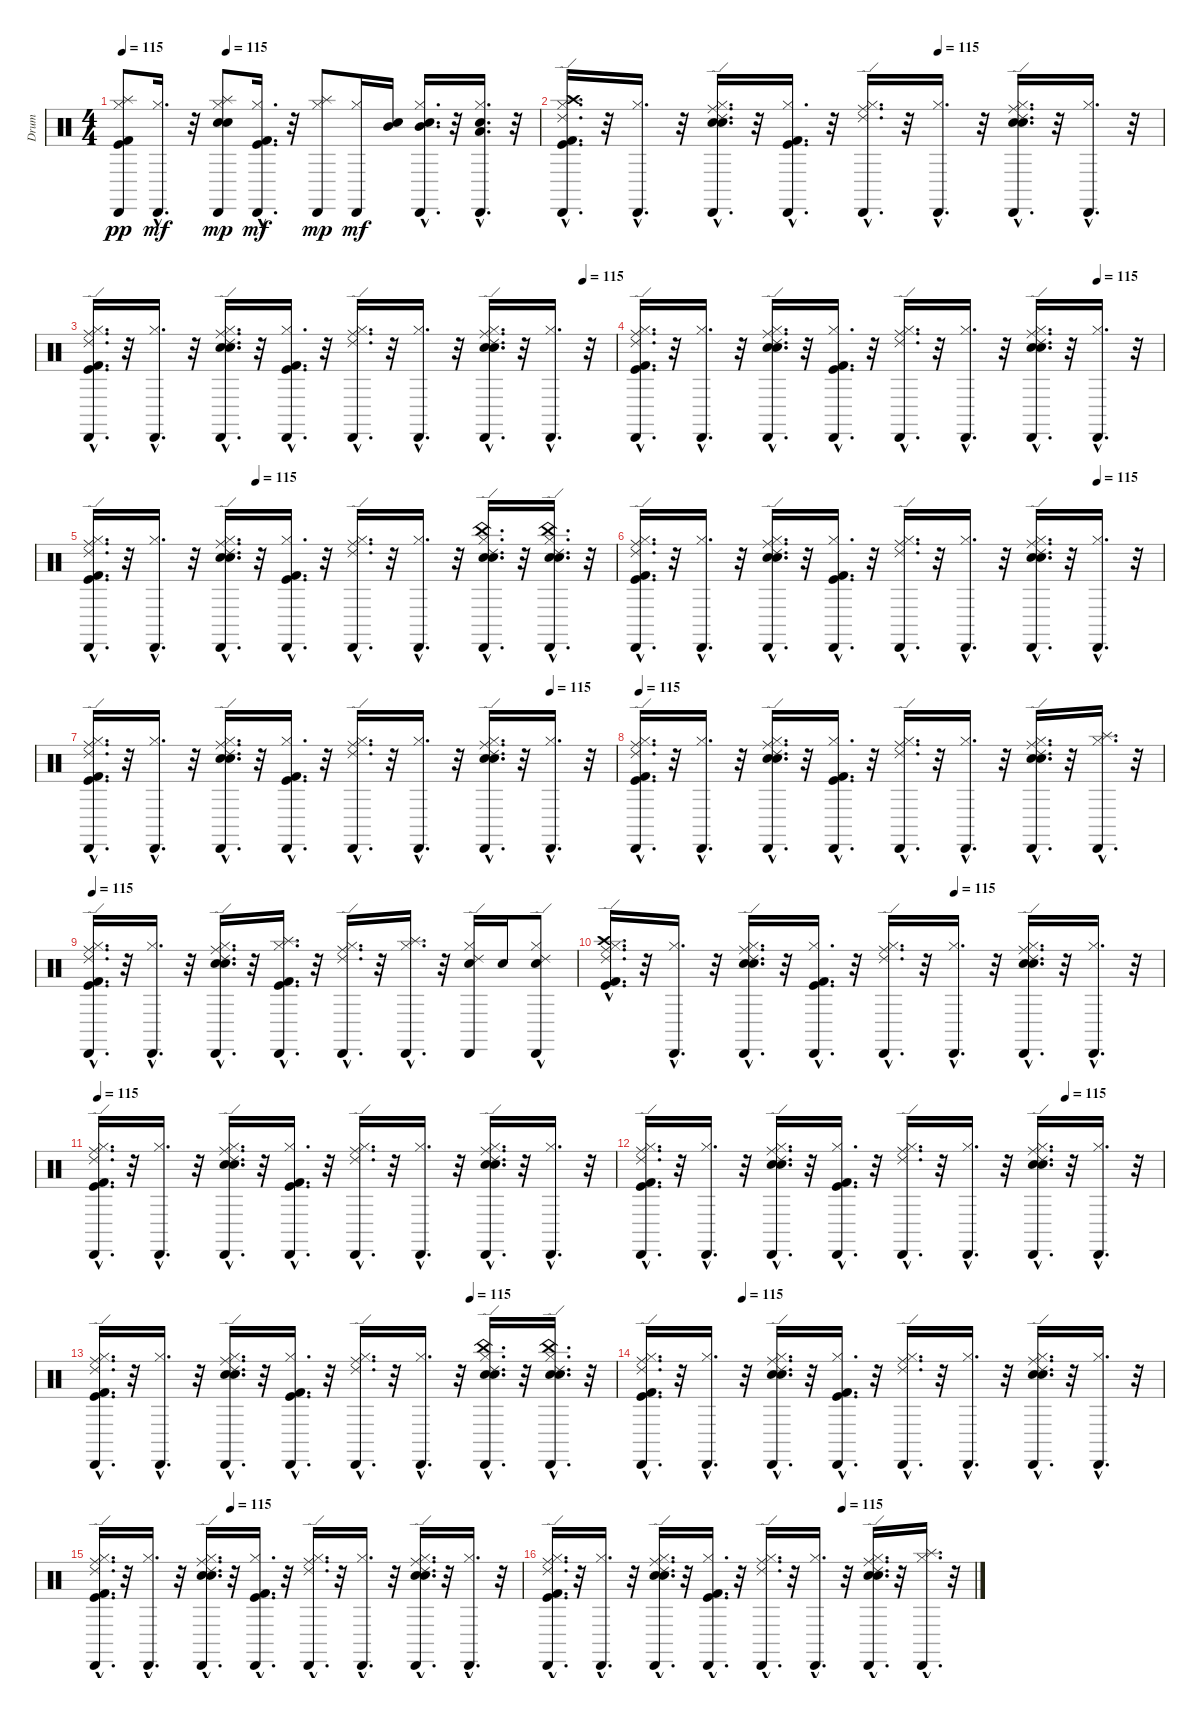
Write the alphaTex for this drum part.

\track ("Drum" "Drum") {instrument percussion}
\staff {score}
\articulation defaults
\ts (4 4)
\tempo 115
\tempo (115 0.25)
\clef neutral
\ks c
("Cabasa (hit)" "Kick (hit) 2" "Kick (hit)" "Hi-Hat (closed)" "Splash (hit)").8{dy pp} ("Cabasa (hit)"{hac} "Hi-Hat (closed)"{hac}).16{d dy mf} r.32 ("Cabasa (hit)" "Hi-Hat (closed)" "Splash (hit)" "Snare (hit) 2" "Electric Snare (hit)").8{dy mp} ("Cabasa (hit)"{hac} "Kick (hit)"{hac} "Kick (hit) 2"{hac} "Hi-Hat (closed)"{hac}).16{d dy mf} r.32 ("Splash (hit)" "Cabasa (hit)" "Hi-Hat (closed)").8{dy mp} ("Cabasa (hit)" "Hi-Hat (closed)").16{dy mf} ("Mid Tom (hit)" "Snare (hit) 2").16 ("Snare (hit) 2"{hac} "Mid Tom (hit)"{hac} "Cabasa (hit)"{hac} "Hi-Hat (closed)"{hac}).16{d} r.32 ("Cabasa (hit)"{hac} "Low Tom (hit)"{hac} "Hi-Hat (closed)"{hac} "Snare (hit) 2"{hac}).16{d} r.32 |
\tempo (115 0.625)
("Cabasa (hit)"{hac} "Kick (hit) 2"{hac} "Kick (hit)"{hac} "Hi-Hat (closed)"{hac} "Crash high (hit)"{hac} "Ride (edge) 2"{hac}).16{d} r.32 ("Cabasa (hit)"{hac} "Hi-Hat (closed)"{hac}).16{d} r.32 ("Cabasa (hit)"{hac} "Electric Snare (hit)"{hac} "Snare (hit) 2"{hac} "Hi-Hat (closed)"{hac} "Ride (edge) 2"{hac} "Ride (middle)"{hac}).16{d} r.32 ("Cabasa (hit)"{hac} "Kick (hit) 2"{hac} "Kick (hit)"{hac} "Hi-Hat (closed)"{hac}).16{d} r.32 ("Cabasa (hit)"{hac} "Hi-Hat (closed)"{hac} "Ride (edge) 2"{hac} "Ride (middle)"{hac}).16{d} r.32 ("Cabasa (hit)"{hac} "Hi-Hat (closed)"{hac}).16{d} r.32 ("Cabasa (hit)"{hac} "Hi-Hat (closed)"{hac} "Electric Snare (hit)"{hac} "Snare (hit) 2"{hac} "Ride (edge) 2"{hac} "Ride (middle)"{hac}).16{d} r.32 ("Cabasa (hit)"{hac} "Hi-Hat (closed)"{hac}).16{d} r.32 |
\tempo (115 0.9375)
("Ride (middle)"{hac} "Ride (edge) 2"{hac} "Hi-Hat (closed)"{hac} "Kick (hit)"{hac} "Kick (hit) 2"{hac} "Cabasa (hit)"{hac}).16{d} r.32 ("Hi-Hat (closed)"{hac} "Cabasa (hit)"{hac}).16{d} r.32 ("Ride (middle)"{hac} "Ride (edge) 2"{hac} "Hi-Hat (closed)"{hac} "Snare (hit) 2"{hac} "Electric Snare (hit)"{hac} "Cabasa (hit)"{hac}).16{d} r.32 ("Hi-Hat (closed)"{hac} "Kick (hit)"{hac} "Kick (hit) 2"{hac} "Cabasa (hit)"{hac}).16{d} r.32 ("Ride (middle)"{hac} "Ride (edge) 2"{hac} "Hi-Hat (closed)"{hac} "Cabasa (hit)"{hac}).16{d} r.32 ("Hi-Hat (closed)"{hac} "Cabasa (hit)"{hac}).16{d} r.32 ("Ride (middle)"{hac} "Ride (edge) 2"{hac} "Snare (hit) 2"{hac} "Electric Snare (hit)"{hac} "Hi-Hat (closed)"{hac} "Cabasa (hit)"{hac}).16{d} r.32 ("Hi-Hat (closed)"{hac} "Cabasa (hit)"{hac}).16{d} r.32 |
\tempo (115 0.875)
("Cabasa (hit)"{hac} "Kick (hit) 2"{hac} "Kick (hit)"{hac} "Hi-Hat (closed)"{hac} "Ride (edge) 2"{hac} "Ride (middle)"{hac}).16{d} r.32 ("Cabasa (hit)"{hac} "Hi-Hat (closed)"{hac}).16{d} r.32 ("Cabasa (hit)"{hac} "Electric Snare (hit)"{hac} "Snare (hit) 2"{hac} "Hi-Hat (closed)"{hac} "Ride (edge) 2"{hac} "Ride (middle)"{hac}).16{d} r.32 ("Cabasa (hit)"{hac} "Kick (hit) 2"{hac} "Kick (hit)"{hac} "Hi-Hat (closed)"{hac}).16{d} r.32 ("Cabasa (hit)"{hac} "Hi-Hat (closed)"{hac} "Ride (edge) 2"{hac} "Ride (middle)"{hac}).16{d} r.32 ("Cabasa (hit)"{hac} "Hi-Hat (closed)"{hac}).16{d} r.32 ("Cabasa (hit)"{hac} "Hi-Hat (closed)"{hac} "Electric Snare (hit)"{hac} "Snare (hit) 2"{hac} "Ride (edge) 2"{hac} "Ride (middle)"{hac}).16{d} r.32 ("Cabasa (hit)"{hac} "Hi-Hat (closed)"{hac}).16{d} r.32 |
\tempo (115 0.3125)
("Cabasa (hit)"{hac} "Kick (hit) 2"{hac} "Kick (hit)"{hac} "Hi-Hat (closed)"{hac} "Ride (edge) 2"{hac} "Ride (middle)"{hac}).16{d} r.32 ("Cabasa (hit)"{hac} "Hi-Hat (closed)"{hac}).16{d} r.32 ("Cabasa (hit)"{hac} "Electric Snare (hit)"{hac} "Snare (hit) 2"{hac} "Hi-Hat (closed)"{hac} "Ride (edge) 2"{hac} "Ride (middle)"{hac}).16{d} r.32 ("Cabasa (hit)"{hac} "Kick (hit) 2"{hac} "Kick (hit)"{hac} "Hi-Hat (closed)"{hac}).16{d} r.32 ("Cabasa (hit)"{hac} "Hi-Hat (closed)"{hac} "Ride (edge) 2"{hac} "Ride (middle)"{hac}).16{d} r.32 ("Cabasa (hit)"{hac} "Hi-Hat (closed)"{hac}).16{d} r.32 ("Cabasa (hit)"{hac} "Hi-Hat (closed)"{hac} "Electric Snare (hit)"{hac} "Snare (hit) 2"{hac} "Ride (edge) 2"{hac} "China (hit)"{hac}).16{d} r.32 ("Cabasa (hit)"{hac} "Hi-Hat (closed)"{hac} "China (hit)"{hac} "Ride (edge) 2"{hac} "Electric Snare (hit)"{hac} "Snare (hit) 2"{hac}).16{d} r.32 |
\tempo (115 0.875)
("Ride (middle)"{hac} "Ride (edge) 2"{hac} "Hi-Hat (closed)"{hac} "Kick (hit)"{hac} "Kick (hit) 2"{hac} "Cabasa (hit)"{hac}).16{d} r.32 ("Hi-Hat (closed)"{hac} "Cabasa (hit)"{hac}).16{d} r.32 ("Ride (middle)"{hac} "Ride (edge) 2"{hac} "Hi-Hat (closed)"{hac} "Snare (hit) 2"{hac} "Electric Snare (hit)"{hac} "Cabasa (hit)"{hac}).16{d} r.32 ("Hi-Hat (closed)"{hac} "Kick (hit)"{hac} "Kick (hit) 2"{hac} "Cabasa (hit)"{hac}).16{d} r.32 ("Ride (middle)"{hac} "Ride (edge) 2"{hac} "Hi-Hat (closed)"{hac} "Cabasa (hit)"{hac}).16{d} r.32 ("Hi-Hat (closed)"{hac} "Cabasa (hit)"{hac}).16{d} r.32 ("Ride (middle)"{hac} "Ride (edge) 2"{hac} "Snare (hit) 2"{hac} "Electric Snare (hit)"{hac} "Hi-Hat (closed)"{hac} "Cabasa (hit)"{hac}).16{d} r.32 ("Hi-Hat (closed)"{hac} "Cabasa (hit)"{hac}).16{d} r.32 |
\tempo (115 0.875)
("Cabasa (hit)"{hac} "Kick (hit) 2"{hac} "Kick (hit)"{hac} "Hi-Hat (closed)"{hac} "Ride (edge) 2"{hac} "Ride (middle)"{hac}).16{d} r.32 ("Cabasa (hit)"{hac} "Hi-Hat (closed)"{hac}).16{d} r.32 ("Cabasa (hit)"{hac} "Electric Snare (hit)"{hac} "Snare (hit) 2"{hac} "Hi-Hat (closed)"{hac} "Ride (edge) 2"{hac} "Ride (middle)"{hac}).16{d} r.32 ("Cabasa (hit)"{hac} "Kick (hit) 2"{hac} "Kick (hit)"{hac} "Hi-Hat (closed)"{hac}).16{d} r.32 ("Cabasa (hit)"{hac} "Hi-Hat (closed)"{hac} "Ride (edge) 2"{hac} "Ride (middle)"{hac}).16{d} r.32 ("Cabasa (hit)"{hac} "Hi-Hat (closed)"{hac}).16{d} r.32 ("Cabasa (hit)"{hac} "Hi-Hat (closed)"{hac} "Electric Snare (hit)"{hac} "Snare (hit) 2"{hac} "Ride (edge) 2"{hac} "Ride (middle)"{hac}).16{d} r.32 ("Cabasa (hit)"{hac} "Hi-Hat (closed)"{hac}).16{d} r.32 |
\tempo 115
("Ride (middle)"{hac} "Ride (edge) 2"{hac} "Hi-Hat (closed)"{hac} "Kick (hit)"{hac} "Kick (hit) 2"{hac} "Cabasa (hit)"{hac}).16{d} r.32 ("Hi-Hat (closed)"{hac} "Cabasa (hit)"{hac}).16{d} r.32 ("Ride (middle)"{hac} "Ride (edge) 2"{hac} "Hi-Hat (closed)"{hac} "Snare (hit) 2"{hac} "Electric Snare (hit)"{hac} "Cabasa (hit)"{hac}).16{d} r.32 ("Hi-Hat (closed)"{hac} "Kick (hit)"{hac} "Kick (hit) 2"{hac} "Cabasa (hit)"{hac}).16{d} r.32 ("Ride (middle)"{hac} "Ride (edge) 2"{hac} "Hi-Hat (closed)"{hac} "Cabasa (hit)"{hac}).16{d} r.32 ("Hi-Hat (closed)"{hac} "Cabasa (hit)"{hac}).16{d} r.32 ("Ride (middle)"{hac} "Ride (edge) 2"{hac} "Snare (hit) 2"{hac} "Electric Snare (hit)"{hac} "Hi-Hat (closed)"{hac} "Cabasa (hit)"{hac}).16{d} r.32 ("Hi-Hat (closed)"{hac} "Cabasa (hit)"{hac} "Splash (hit)"{hac}).16{d} r.32 |
\tempo 115
("Ride (middle)"{hac} "Ride (edge) 2"{hac} "Hi-Hat (closed)"{hac} "Kick (hit)"{hac} "Kick (hit) 2"{hac} "Cabasa (hit)"{hac}).16{d} r.32 ("Hi-Hat (closed)"{hac} "Cabasa (hit)"{hac}).16{d} r.32 ("Ride (middle)"{hac} "Ride (edge) 2"{hac} "Hi-Hat (closed)"{hac} "Snare (hit) 2"{hac} "Electric Snare (hit)"{hac} "Cabasa (hit)"{hac}).16{d} r.32 ("Hi-Hat (closed)"{hac} "Kick (hit)"{hac} "Kick (hit) 2"{hac} "Cabasa (hit)"{hac} "Splash (hit)"{hac}).16{d} r.32 ("Ride (middle)"{hac} "Ride (edge) 2"{hac} "Hi-Hat (closed)"{hac} "Cabasa (hit)"{hac}).16{d} r.32 ("Hi-Hat (closed)"{hac} "Cabasa (hit)"{hac} "Splash (hit)"{hac}).16{d} r.32 ("Ride (edge) 2" "Hi-Hat (closed)" "Cabasa (hit)" "Snare (hit) 2").16 "Snare (hit) 2".16 ("Hi-Hat (closed)"{hac} "Snare (hit) 2"{hac} "Cabasa (hit)"{hac} "Ride (edge) 2"{hac}).8 |
\tempo (115 0.625)
("Ride (middle)"{hac} "Ride (edge) 2"{hac} "Crash high (hit)"{hac} "Hi-Hat (closed)"{hac} "Kick (hit)"{hac} "Kick (hit) 2"{hac}).16{d} r.32 ("Hi-Hat (closed)"{hac} "Cabasa (hit)"{hac}).16{d} r.32 ("Ride (middle)"{hac} "Ride (edge) 2"{hac} "Hi-Hat (closed)"{hac} "Snare (hit) 2"{hac} "Electric Snare (hit)"{hac} "Cabasa (hit)"{hac}).16{d} r.32 ("Hi-Hat (closed)"{hac} "Kick (hit)"{hac} "Kick (hit) 2"{hac} "Cabasa (hit)"{hac}).16{d} r.32 ("Ride (middle)"{hac} "Ride (edge) 2"{hac} "Hi-Hat (closed)"{hac} "Cabasa (hit)"{hac}).16{d} r.32 ("Hi-Hat (closed)"{hac} "Cabasa (hit)"{hac}).16{d} r.32 ("Ride (middle)"{hac} "Ride (edge) 2"{hac} "Snare (hit) 2"{hac} "Electric Snare (hit)"{hac} "Hi-Hat (closed)"{hac} "Cabasa (hit)"{hac}).16{d} r.32 ("Hi-Hat (closed)"{hac} "Cabasa (hit)"{hac}).16{d} r.32 |
\tempo 115
("Cabasa (hit)"{hac} "Kick (hit) 2"{hac} "Kick (hit)"{hac} "Hi-Hat (closed)"{hac} "Ride (edge) 2"{hac} "Ride (middle)"{hac}).16{d} r.32 ("Cabasa (hit)"{hac} "Hi-Hat (closed)"{hac}).16{d} r.32 ("Cabasa (hit)"{hac} "Electric Snare (hit)"{hac} "Snare (hit) 2"{hac} "Hi-Hat (closed)"{hac} "Ride (edge) 2"{hac} "Ride (middle)"{hac}).16{d} r.32 ("Cabasa (hit)"{hac} "Kick (hit) 2"{hac} "Kick (hit)"{hac} "Hi-Hat (closed)"{hac}).16{d} r.32 ("Cabasa (hit)"{hac} "Hi-Hat (closed)"{hac} "Ride (edge) 2"{hac} "Ride (middle)"{hac}).16{d} r.32 ("Cabasa (hit)"{hac} "Hi-Hat (closed)"{hac}).16{d} r.32 ("Cabasa (hit)"{hac} "Hi-Hat (closed)"{hac} "Electric Snare (hit)"{hac} "Snare (hit) 2"{hac} "Ride (edge) 2"{hac} "Ride (middle)"{hac}).16{d} r.32 ("Cabasa (hit)"{hac} "Hi-Hat (closed)"{hac}).16{d} r.32 |
\tempo (115 0.8125)
("Ride (middle)"{hac} "Ride (edge) 2"{hac} "Hi-Hat (closed)"{hac} "Kick (hit)"{hac} "Kick (hit) 2"{hac} "Cabasa (hit)"{hac}).16{d} r.32 ("Hi-Hat (closed)"{hac} "Cabasa (hit)"{hac}).16{d} r.32 ("Ride (middle)"{hac} "Ride (edge) 2"{hac} "Hi-Hat (closed)"{hac} "Snare (hit) 2"{hac} "Electric Snare (hit)"{hac} "Cabasa (hit)"{hac}).16{d} r.32 ("Hi-Hat (closed)"{hac} "Kick (hit)"{hac} "Kick (hit) 2"{hac} "Cabasa (hit)"{hac}).16{d} r.32 ("Ride (middle)"{hac} "Ride (edge) 2"{hac} "Hi-Hat (closed)"{hac} "Cabasa (hit)"{hac}).16{d} r.32 ("Hi-Hat (closed)"{hac} "Cabasa (hit)"{hac}).16{d} r.32 ("Ride (middle)"{hac} "Ride (edge) 2"{hac} "Snare (hit) 2"{hac} "Electric Snare (hit)"{hac} "Hi-Hat (closed)"{hac} "Cabasa (hit)"{hac}).16{d} r.32 ("Hi-Hat (closed)"{hac} "Cabasa (hit)"{hac}).16{d} r.32 |
\tempo (115 0.71875)
("Ride (middle)"{hac} "Ride (edge) 2"{hac} "Hi-Hat (closed)"{hac} "Kick (hit)"{hac} "Kick (hit) 2"{hac} "Cabasa (hit)"{hac}).16{d} r.32 ("Hi-Hat (closed)"{hac} "Cabasa (hit)"{hac}).16{d} r.32 ("Ride (middle)"{hac} "Ride (edge) 2"{hac} "Hi-Hat (closed)"{hac} "Snare (hit) 2"{hac} "Electric Snare (hit)"{hac} "Cabasa (hit)"{hac}).16{d} r.32 ("Hi-Hat (closed)"{hac} "Kick (hit)"{hac} "Kick (hit) 2"{hac} "Cabasa (hit)"{hac}).16{d} r.32 ("Ride (middle)"{hac} "Ride (edge) 2"{hac} "Hi-Hat (closed)"{hac} "Cabasa (hit)"{hac}).16{d} r.32 ("Hi-Hat (closed)"{hac} "Cabasa (hit)"{hac}).16{d} r.32 ("China (hit)"{hac} "Ride (edge) 2"{hac} "Snare (hit) 2"{hac} "Electric Snare (hit)"{hac} "Hi-Hat (closed)"{hac} "Cabasa (hit)"{hac}).16{d} r.32 ("Snare (hit) 2"{hac} "Electric Snare (hit)"{hac} "Ride (edge) 2"{hac} "China (hit)"{hac} "Hi-Hat (closed)"{hac} "Cabasa (hit)"{hac}).16{d} r.32 |
\tempo (115 0.1875)
("Cabasa (hit)"{hac} "Kick (hit) 2"{hac} "Kick (hit)"{hac} "Hi-Hat (closed)"{hac} "Ride (edge) 2"{hac} "Ride (middle)"{hac}).16{d} r.32 ("Cabasa (hit)"{hac} "Hi-Hat (closed)"{hac}).16{d} r.32 ("Cabasa (hit)"{hac} "Electric Snare (hit)"{hac} "Snare (hit) 2"{hac} "Hi-Hat (closed)"{hac} "Ride (edge) 2"{hac} "Ride (middle)"{hac}).16{d} r.32 ("Cabasa (hit)"{hac} "Kick (hit) 2"{hac} "Kick (hit)"{hac} "Hi-Hat (closed)"{hac}).16{d} r.32 ("Cabasa (hit)"{hac} "Hi-Hat (closed)"{hac} "Ride (edge) 2"{hac} "Ride (middle)"{hac}).16{d} r.32 ("Cabasa (hit)"{hac} "Hi-Hat (closed)"{hac}).16{d} r.32 ("Cabasa (hit)"{hac} "Hi-Hat (closed)"{hac} "Electric Snare (hit)"{hac} "Snare (hit) 2"{hac} "Ride (edge) 2"{hac} "Ride (middle)"{hac}).16{d} r.32 ("Cabasa (hit)"{hac} "Hi-Hat (closed)"{hac}).16{d} r.32 |
\tempo (115 0.3125)
("Ride (middle)"{hac} "Ride (edge) 2"{hac} "Hi-Hat (closed)"{hac} "Kick (hit)"{hac} "Kick (hit) 2"{hac} "Cabasa (hit)"{hac}).16{d} r.32 ("Hi-Hat (closed)"{hac} "Cabasa (hit)"{hac}).16{d} r.32 ("Ride (middle)"{hac} "Ride (edge) 2"{hac} "Hi-Hat (closed)"{hac} "Snare (hit) 2"{hac} "Electric Snare (hit)"{hac} "Cabasa (hit)"{hac}).16{d} r.32 ("Hi-Hat (closed)"{hac} "Kick (hit)"{hac} "Kick (hit) 2"{hac} "Cabasa (hit)"{hac}).16{d} r.32 ("Ride (middle)"{hac} "Ride (edge) 2"{hac} "Hi-Hat (closed)"{hac} "Cabasa (hit)"{hac}).16{d} r.32 ("Hi-Hat (closed)"{hac} "Cabasa (hit)"{hac}).16{d} r.32 ("Ride (middle)"{hac} "Ride (edge) 2"{hac} "Snare (hit) 2"{hac} "Electric Snare (hit)"{hac} "Hi-Hat (closed)"{hac} "Cabasa (hit)"{hac}).16{d} r.32 ("Hi-Hat (closed)"{hac} "Cabasa (hit)"{hac}).16{d} r.32 |
\tempo (115 0.6875)
("Cabasa (hit)"{hac} "Kick (hit) 2"{hac} "Kick (hit)"{hac} "Hi-Hat (closed)"{hac} "Ride (edge) 2"{hac} "Ride (middle)"{hac}).16{d} r.32 ("Cabasa (hit)"{hac} "Hi-Hat (closed)"{hac}).16{d} r.32 ("Cabasa (hit)"{hac} "Electric Snare (hit)"{hac} "Snare (hit) 2"{hac} "Hi-Hat (closed)"{hac} "Ride (edge) 2"{hac} "Ride (middle)"{hac}).16{d} r.32 ("Cabasa (hit)"{hac} "Kick (hit) 2"{hac} "Kick (hit)"{hac} "Hi-Hat (closed)"{hac}).16{d} r.32 ("Cabasa (hit)"{hac} "Hi-Hat (closed)"{hac} "Ride (edge) 2"{hac} "Ride (middle)"{hac}).16{d} r.32 ("Cabasa (hit)"{hac} "Hi-Hat (closed)"{hac}).16{d} r.32 ("Cabasa (hit)"{hac} "Hi-Hat (closed)"{hac} "Electric Snare (hit)"{hac} "Snare (hit) 2"{hac} "Ride (edge) 2"{hac} "Ride (middle)"{hac}).16{d} r.32 ("Splash (hit)"{hac} "Cabasa (hit)"{hac} "Hi-Hat (closed)"{hac}).16{d} r.32
